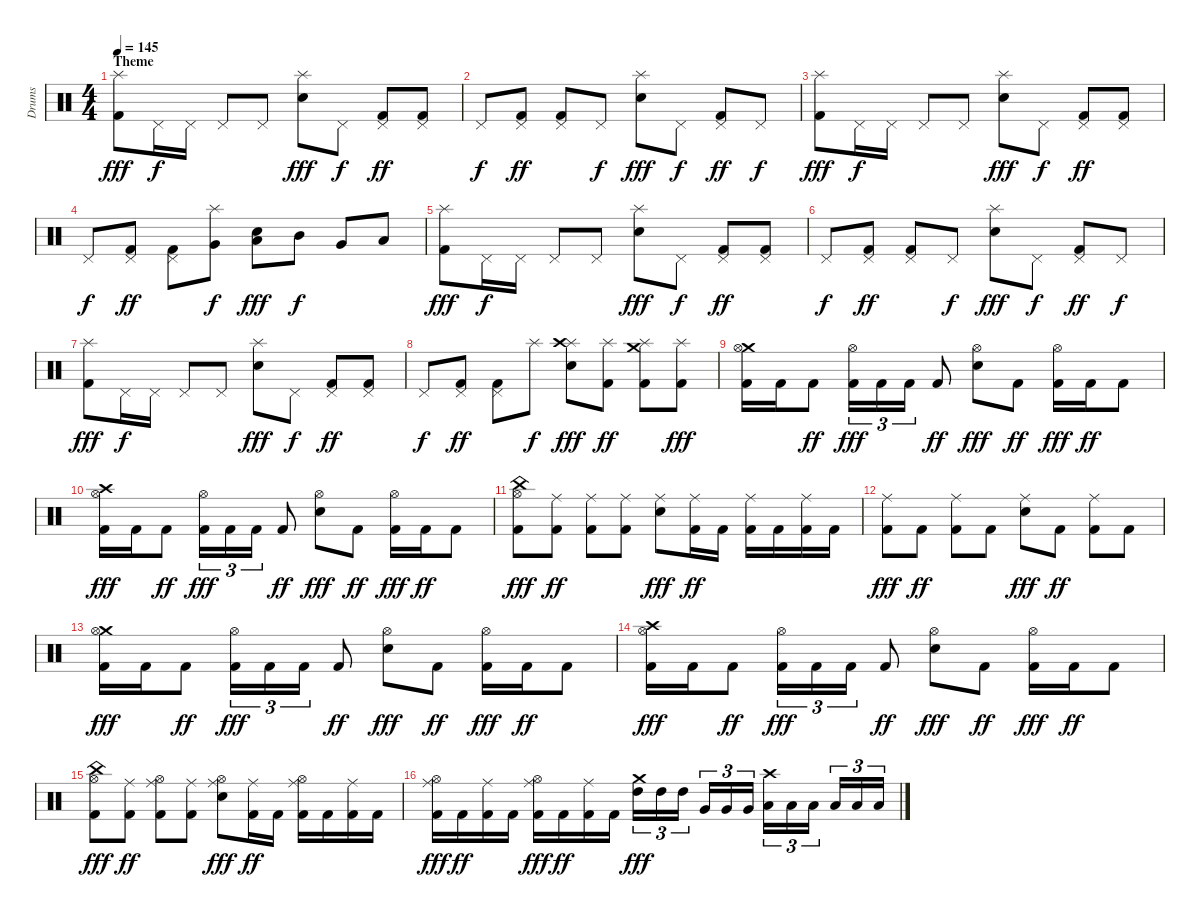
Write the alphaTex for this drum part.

\track ("Drums" "Drums") {instrument percussion}
\staff {score}
\articulation defaults
\ts (4 4)
\section ("" "Theme")
\tempo 145
\clef neutral
\ks c
("Splash (hit)" "Kick (hit) 2").8{dy fff} "Pedal Hi-Hat (hit)".16{dy f} "Pedal Hi-Hat (hit)".16 "Pedal Hi-Hat (hit)".8 "Pedal Hi-Hat (hit)".8 ("Splash (hit)" "Snare (hit) 2").8{dy fff} "Pedal Hi-Hat (hit)".8{dy f} ("Pedal Hi-Hat (hit)" "Kick (hit) 2").8{dy ff} ("Pedal Hi-Hat (hit)" "Kick (hit) 2").8 |
"Pedal Hi-Hat (hit)".8{dy f} ("Pedal Hi-Hat (hit)" "Kick (hit) 2").8{dy ff} ("Pedal Hi-Hat (hit)" "Kick (hit) 2").8 "Pedal Hi-Hat (hit)".8{dy f} ("Splash (hit)" "Snare (hit) 2").8{dy fff} "Pedal Hi-Hat (hit)".8{dy f} ("Pedal Hi-Hat (hit)" "Kick (hit) 2").8{dy ff} "Pedal Hi-Hat (hit)".8{dy f} |
("Splash (hit)" "Kick (hit) 2").8{dy fff} "Pedal Hi-Hat (hit)".16{dy f} "Pedal Hi-Hat (hit)".16 "Pedal Hi-Hat (hit)".8 "Pedal Hi-Hat (hit)".8 ("Splash (hit)" "Snare (hit) 2").8{dy fff} "Pedal Hi-Hat (hit)".8{dy f} ("Pedal Hi-Hat (hit)" "Kick (hit) 2").8{dy ff} ("Pedal Hi-Hat (hit)" "Kick (hit) 2").8 |
"Pedal Hi-Hat (hit)".8{dy f} ("Pedal Hi-Hat (hit)" "Kick (hit) 2").8{dy ff} ("Pedal Hi-Hat (hit)" "Kick (hit) 2").8 ("Splash (hit)" "Very Low Tom (hit)").8{dy f} ("Low Tom (hit)" "Snare (hit) 2").8{dy fff} "Mid Tom (hit)".8{dy f} "Very Low Tom (hit)".8 "Low Tom (hit)".8 |
("Splash (hit)" "Kick (hit) 2").8{dy fff} "Pedal Hi-Hat (hit)".16{dy f} "Pedal Hi-Hat (hit)".16 "Pedal Hi-Hat (hit)".8 "Pedal Hi-Hat (hit)".8 ("Splash (hit)" "Snare (hit) 2").8{dy fff} "Pedal Hi-Hat (hit)".8{dy f} ("Pedal Hi-Hat (hit)" "Kick (hit) 2").8{dy ff} ("Pedal Hi-Hat (hit)" "Kick (hit) 2").8 |
"Pedal Hi-Hat (hit)".8{dy f} ("Pedal Hi-Hat (hit)" "Kick (hit) 2").8{dy ff} ("Pedal Hi-Hat (hit)" "Kick (hit) 2").8 "Pedal Hi-Hat (hit)".8{dy f} ("Splash (hit)" "Snare (hit) 2").8{dy fff} "Pedal Hi-Hat (hit)".8{dy f} ("Pedal Hi-Hat (hit)" "Kick (hit) 2").8{dy ff} "Pedal Hi-Hat (hit)".8{dy f} |
("Splash (hit)" "Kick (hit) 2").8{dy fff} "Pedal Hi-Hat (hit)".16{dy f} "Pedal Hi-Hat (hit)".16 "Pedal Hi-Hat (hit)".8 "Pedal Hi-Hat (hit)".8 ("Splash (hit)" "Snare (hit) 2").8{dy fff} "Pedal Hi-Hat (hit)".8{dy f} ("Pedal Hi-Hat (hit)" "Kick (hit) 2").8{dy ff} ("Pedal Hi-Hat (hit)" "Kick (hit) 2").8 |
"Pedal Hi-Hat (hit)".8{dy f} ("Pedal Hi-Hat (hit)" "Kick (hit) 2").8{dy ff} ("Pedal Hi-Hat (hit)" "Kick (hit) 2").8 "Splash (hit)".8{dy f} ("Splash (hit)" "Crash high (hit)" "Snare (hit) 2").8{dy fff} ("Splash (hit)" "Kick (hit) 2").8{dy ff} ("Splash (hit)" "Crash medium (hit)" "Kick (hit) 2").8 ("Splash (hit)" "Kick (hit) 2").8{dy fff} |
("Crash medium (hit)" "Hi-Hat (open)" "Kick (hit) 2").16 "Kick (hit) 2".16 "Kick (hit) 2".8{dy ff} ("Hi-Hat (open)" "Kick (hit) 2").16{tu (3 2) dy fff} "Kick (hit) 2".16{tu (3 2)} "Kick (hit) 2".16{tu (3 2)} "Kick (hit) 2".8{dy ff} ("Hi-Hat (open)" "Snare (hit) 2").8{dy fff} "Kick (hit) 2".8{dy ff} ("Hi-Hat (open)" "Kick (hit) 2").16{dy fff} "Kick (hit) 2".16{dy ff} "Kick (hit) 2".8 |
("Crash high (hit)" "Hi-Hat (open)" "Kick (hit) 2").16{dy fff} "Kick (hit) 2".16 "Kick (hit) 2".8{dy ff} ("Hi-Hat (open)" "Kick (hit) 2").16{tu (3 2) dy fff} "Kick (hit) 2".16{tu (3 2)} "Kick (hit) 2".16{tu (3 2)} "Kick (hit) 2".8{dy ff} ("Hi-Hat (open)" "Snare (hit) 2").8{dy fff} "Kick (hit) 2".8{dy ff} ("Hi-Hat (open)" "Kick (hit) 2").16{dy fff} "Kick (hit) 2".16{dy ff} "Kick (hit) 2".8 |
("China (hit)" "Hi-Hat (open)" "Kick (hit) 2").8{dy fff} ("Ride (middle)" "Kick (hit) 2").8{dy ff} ("Ride (middle)" "Kick (hit) 2").8 ("Ride (middle)" "Kick (hit) 2").8 ("Ride (middle)" "Snare (hit) 2").8{dy fff} ("Ride (middle)" "Kick (hit) 2").16{dy ff} "Kick (hit) 2".16 ("Ride (middle)" "Kick (hit) 2").16 "Kick (hit) 2".16 ("Ride (middle)" "Kick (hit) 2").16 "Kick (hit) 2".16 |
("Ride (middle)" "Kick (hit) 2").8{dy fff} "Kick (hit) 2".8{dy ff} ("Ride (middle)" "Kick (hit) 2").8 "Kick (hit) 2".8 ("Ride (middle)" "Snare (hit) 2").8{dy fff} "Kick (hit) 2".8{dy ff} ("Ride (middle)" "Kick (hit) 2").8 "Kick (hit) 2".8 |
("Crash medium (hit)" "Hi-Hat (open)" "Kick (hit) 2").16{dy fff} "Kick (hit) 2".16 "Kick (hit) 2".8{dy ff} ("Hi-Hat (open)" "Kick (hit) 2").16{tu (3 2) dy fff} "Kick (hit) 2".16{tu (3 2)} "Kick (hit) 2".16{tu (3 2)} "Kick (hit) 2".8{dy ff} ("Hi-Hat (open)" "Snare (hit) 2").8{dy fff} "Kick (hit) 2".8{dy ff} ("Hi-Hat (open)" "Kick (hit) 2").16{dy fff} "Kick (hit) 2".16{dy ff} "Kick (hit) 2".8 |
("Crash high (hit)" "Hi-Hat (open)" "Kick (hit) 2").16{dy fff} "Kick (hit) 2".16 "Kick (hit) 2".8{dy ff} ("Hi-Hat (open)" "Kick (hit) 2").16{tu (3 2) dy fff} "Kick (hit) 2".16{tu (3 2)} "Kick (hit) 2".16{tu (3 2)} "Kick (hit) 2".8{dy ff} ("Hi-Hat (open)" "Snare (hit) 2").8{dy fff} "Kick (hit) 2".8{dy ff} ("Hi-Hat (open)" "Kick (hit) 2").16{dy fff} "Kick (hit) 2".16{dy ff} "Kick (hit) 2".8 |
("China (hit)" "Hi-Hat (open)" "Kick (hit) 2").8{dy fff} ("Ride (middle)" "Kick (hit) 2").8{dy ff} ("Ride (middle)" "Hi-Hat (open)" "Kick (hit) 2").8 ("Ride (middle)" "Kick (hit) 2").8 ("Ride (middle)" "Hi-Hat (open)" "Snare (hit) 2").8{dy fff} ("Ride (middle)" "Kick (hit) 2").16{dy ff} "Kick (hit) 2".16 ("Ride (middle)" "Hi-Hat (open)" "Kick (hit) 2").16 "Kick (hit) 2".16 ("Ride (middle)" "Kick (hit) 2").16 "Kick (hit) 2".16 |
("Ride (middle)" "Hi-Hat (open)" "Kick (hit) 2").16{dy fff} "Kick (hit) 2".16{dy ff} ("Ride (middle)" "Kick (hit) 2").16 "Kick (hit) 2".16 ("Ride (middle)" "Hi-Hat (open)" "Kick (hit) 2").16{dy fff} "Kick (hit) 2".16{dy ff} ("Ride (middle)" "Kick (hit) 2").16 "Kick (hit) 2".16 ("Crash medium (hit)" "High Tom (hit)").16{tu (3 2) dy fff} "High Tom (hit)".16{tu (3 2)} "High Tom (hit)".16{tu (3 2)} "Very Low Tom (hit)".16{tu (3 2)} "Very Low Tom (hit)".16{tu (3 2)} "Very Low Tom (hit)".16{tu (3 2)} ("Crash high (hit)" "Low Tom (hit)").16{tu (3 2)} "Low Tom (hit)".16{tu (3 2)} "Low Tom (hit)".16{tu (3 2)} "Low Floor Tom (hit)".16{tu (3 2)} "Low Floor Tom (hit)".16{tu (3 2)} "Low Floor Tom (hit)".16{tu (3 2)}
